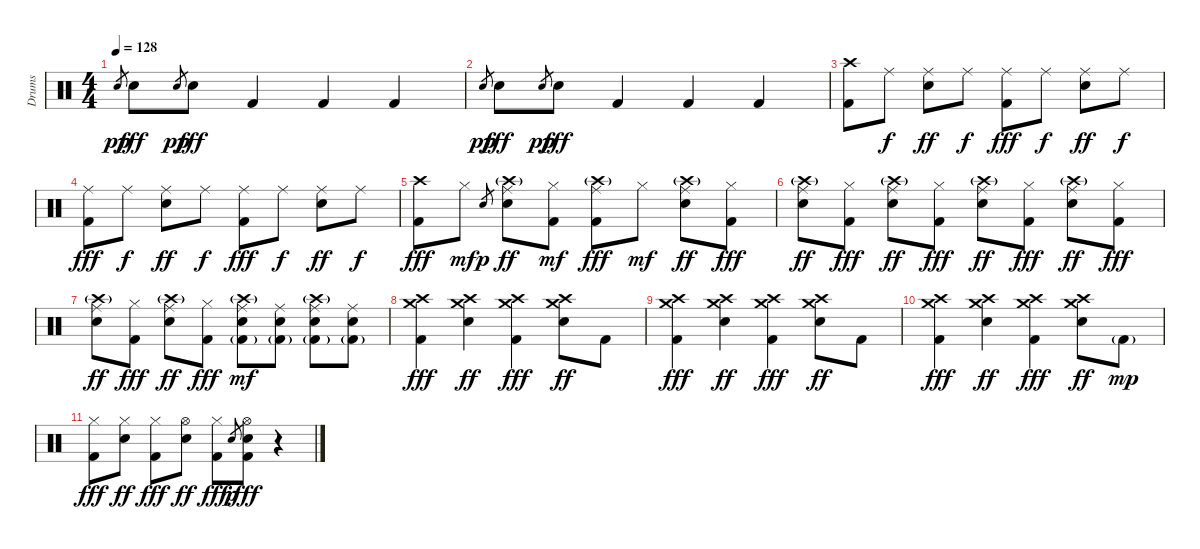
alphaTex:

\track ("Drums" "Drums") {instrument percussion}
\staff {score}
\articulation defaults
\ts (4 4)
\tempo 128
\clef neutral
\ks c "Electric Snare (hit)".8{gr dy pp} "Electric Snare (hit)".8{dy fff} "Electric Snare (hit)".8{gr dy pp} "Electric Snare (hit)".8{dy fff} "Kick (hit) 2".4 "Kick (hit) 2".4 "Kick (hit) 2".4
|
"Electric Snare (hit)".8{gr dy pp} "Electric Snare (hit)".8{dy fff} "Electric Snare (hit)".8{gr dy pp} "Electric Snare (hit)".8{dy fff} "Kick (hit) 2".4 "Kick (hit) 2".4 "Kick (hit) 2".4 |
("Crash high (hit)" "Kick (hit) 2").8 "Ride (middle)".8{dy f} ("Ride (middle)" "Electric Snare (hit)").8{dy ff} "Ride (middle)".8{dy f} ("Ride (middle)" "Kick (hit) 2").8{dy fff} "Ride (middle)".8{dy f} ("Ride (middle)" "Electric Snare (hit)").8{dy ff} "Ride (middle)".8{dy f} |
("Ride (middle)" "Kick (hit) 2").8{dy fff} "Ride (middle)".8{dy f} ("Ride (middle)" "Electric Snare (hit)").8{dy ff} "Ride (middle)".8{dy f} ("Ride (middle)" "Kick (hit) 2").8{dy fff} "Ride (middle)".8{dy f} ("Ride (middle)" "Electric Snare (hit)").8{dy ff} "Ride (middle)".8{dy f} |
("Crash high (hit)" "Kick (hit) 2").8{dy fff} "Hi-Hat (closed)".8{dy mf} "Electric Snare (hit)".8{gr dy p} ("Crash high (hit)"{g} "Ride (middle)" "Electric Snare (hit)").8{dy ff} ("Hi-Hat (closed)" "Kick (hit) 2").8{dy mf} ("Crash high (hit)"{g} "Ride (middle)" "Kick (hit) 2").8{dy fff} "Hi-Hat (closed)".8{dy mf} ("Crash high (hit)"{g} "Ride (middle)" "Electric Snare (hit)").8{dy ff} ("Hi-Hat (closed)" "Kick (hit) 2").8{dy fff} |
("Crash high (hit)"{g} "Ride (middle)" "Electric Snare (hit)").8{dy ff} ("Hi-Hat (closed)" "Kick (hit) 2").8{dy fff} ("Crash high (hit)"{g} "Ride (middle)" "Electric Snare (hit)").8{dy ff} ("Hi-Hat (closed)" "Kick (hit) 2").8{dy fff} ("Crash high (hit)"{g} "Ride (middle)" "Electric Snare (hit)").8{dy ff} ("Hi-Hat (closed)" "Kick (hit) 2").8{dy fff} ("Crash high (hit)"{g} "Ride (middle)" "Electric Snare (hit)").8{dy ff} ("Hi-Hat (closed)" "Kick (hit) 2").8{dy fff} |
("Crash high (hit)"{g} "Ride (middle)" "Electric Snare (hit)").8{dy ff} ("Hi-Hat (closed)" "Kick (hit) 2").8{dy fff} ("Crash high (hit)"{g} "Ride (middle)" "Electric Snare (hit)").8{dy ff} ("Hi-Hat (closed)" "Kick (hit) 2").8{dy fff} ("Crash high (hit)"{g} "Ride (middle)" "Electric Snare (hit)" "Kick (hit) 2"{g}).8{dy mf} ("Ride (middle)" "Electric Snare (hit)" "Kick (hit) 2"{g}).8 ("Crash high (hit)"{g} "Ride (middle)" "Electric Snare (hit)" "Kick (hit) 2"{g}).8 ("Ride (middle)" "Electric Snare (hit)" "Kick (hit) 2"{g}).8 |
("Crash high (hit)" "Crash medium (hit)" "Kick (hit) 2").4{dy fff} ("Crash high (hit)" "Crash medium (hit)" "Electric Snare (hit)").4{dy ff} ("Crash high (hit)" "Crash medium (hit)" "Kick (hit) 2").4{dy fff} ("Crash high (hit)" "Crash medium (hit)" "Electric Snare (hit)").8{dy ff} "Kick (hit) 2".8 |
("Crash high (hit)" "Crash medium (hit)" "Kick (hit) 2").4{dy fff} ("Crash high (hit)" "Crash medium (hit)" "Electric Snare (hit)").4{dy ff} ("Crash high (hit)" "Crash medium (hit)" "Kick (hit) 2").4{dy fff} ("Crash high (hit)" "Crash medium (hit)" "Electric Snare (hit)").8{dy ff} "Kick (hit) 2".8 |
("Crash high (hit)" "Crash medium (hit)" "Kick (hit) 2").4{dy fff} ("Crash high (hit)" "Crash medium (hit)" "Electric Snare (hit)").4{dy ff} ("Crash high (hit)" "Crash medium (hit)" "Kick (hit) 2").4{dy fff} ("Crash high (hit)" "Crash medium (hit)" "Electric Snare (hit)").8{dy ff} "Kick (hit) 2"{g}.8{dy mp} |
("Hi-Hat (closed)" "Kick (hit) 2").8{dy fff} ("Hi-Hat (closed)" "Electric Snare (hit)").8{dy ff} ("Hi-Hat (closed)" "Kick (hit) 2").8{dy fff} ("Hi-Hat (open)" "Electric Snare (hit)").8{dy ff} ("Hi-Hat (closed)" "Kick (hit) 2").8{dy fff} "Electric Snare (hit)".8{gr dy p} ("Hi-Hat (open)" "Electric Snare (hit)" "Kick (hit) 2").8{dy fff} r.4
